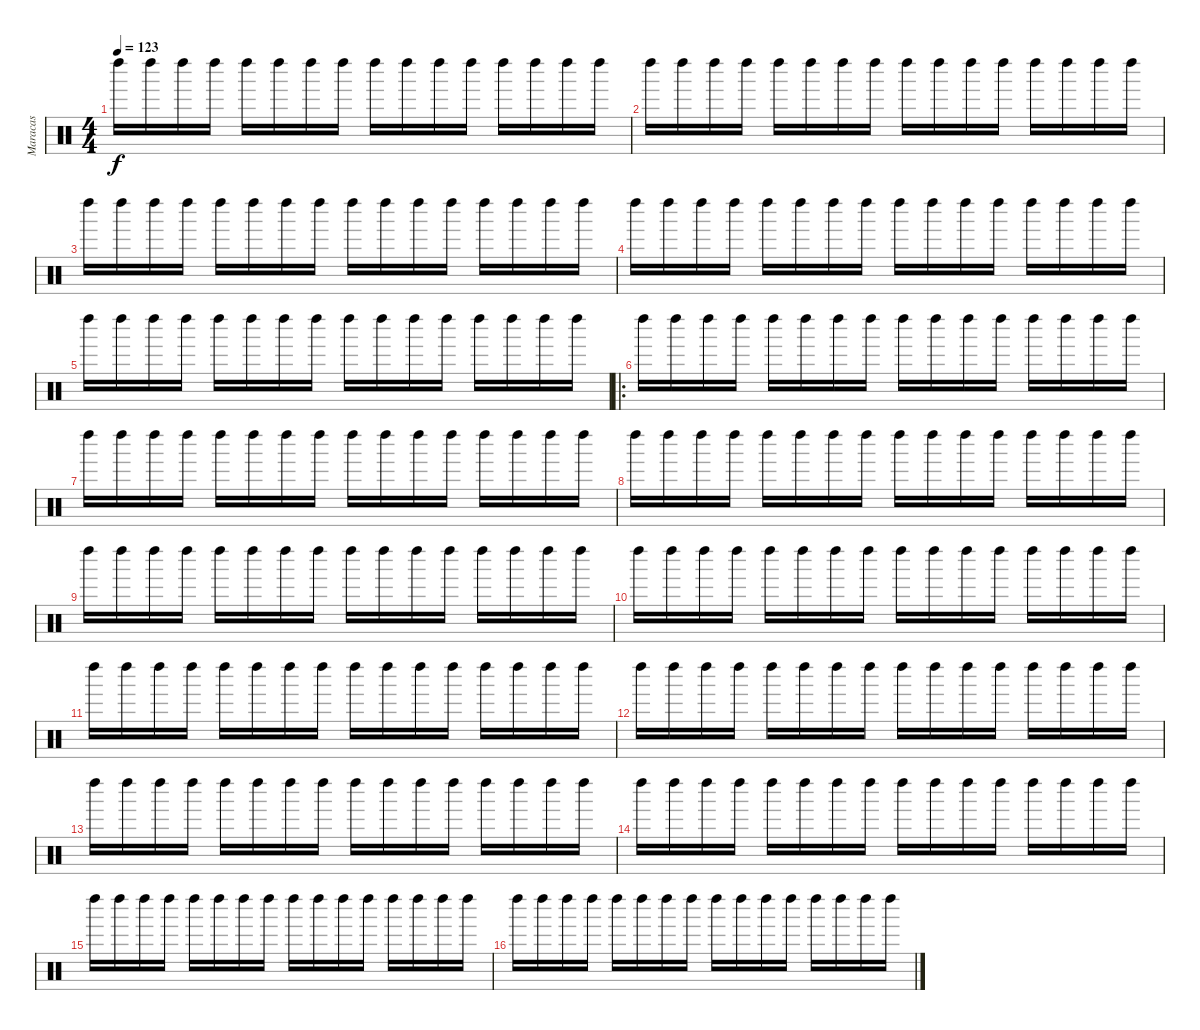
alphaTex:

\track ("Maracas" "Maracas") {instrument percussion}
\staff {score}
\articulation defaults
\ts (4 4)
\tempo 123
\clef neutral
\ks c "Left Maraca (hit)".16{dy f} "Left Maraca (hit)".16 "Left Maraca (hit)".16 "Left Maraca (hit)".16 "Left Maraca (hit)".16 "Left Maraca (hit)".16 "Left Maraca (hit)".16 "Left Maraca (hit)".16 "Left Maraca (hit)".16 "Left Maraca (hit)".16 "Left Maraca (hit)".16 "Left Maraca (hit)".16 "Left Maraca (hit)".16 "Left Maraca (hit)".16 "Left Maraca (hit)".16 "Left Maraca (hit)".16
|
"Left Maraca (hit)".16 "Left Maraca (hit)".16 "Left Maraca (hit)".16 "Left Maraca (hit)".16 "Left Maraca (hit)".16 "Left Maraca (hit)".16 "Left Maraca (hit)".16 "Left Maraca (hit)".16 "Left Maraca (hit)".16 "Left Maraca (hit)".16 "Left Maraca (hit)".16 "Left Maraca (hit)".16 "Left Maraca (hit)".16 "Left Maraca (hit)".16 "Left Maraca (hit)".16 "Left Maraca (hit)".16 |
"Left Maraca (hit)".16 "Left Maraca (hit)".16 "Left Maraca (hit)".16 "Left Maraca (hit)".16 "Left Maraca (hit)".16 "Left Maraca (hit)".16 "Left Maraca (hit)".16 "Left Maraca (hit)".16 "Left Maraca (hit)".16 "Left Maraca (hit)".16 "Left Maraca (hit)".16 "Left Maraca (hit)".16 "Left Maraca (hit)".16 "Left Maraca (hit)".16 "Left Maraca (hit)".16 "Left Maraca (hit)".16 |
"Left Maraca (hit)".16 "Left Maraca (hit)".16 "Left Maraca (hit)".16 "Left Maraca (hit)".16 "Left Maraca (hit)".16 "Left Maraca (hit)".16 "Left Maraca (hit)".16 "Left Maraca (hit)".16 "Left Maraca (hit)".16 "Left Maraca (hit)".16 "Left Maraca (hit)".16 "Left Maraca (hit)".16 "Left Maraca (hit)".16 "Left Maraca (hit)".16 "Left Maraca (hit)".16 "Left Maraca (hit)".16 |
"Left Maraca (hit)".16 "Left Maraca (hit)".16 "Left Maraca (hit)".16 "Left Maraca (hit)".16 "Left Maraca (hit)".16 "Left Maraca (hit)".16 "Left Maraca (hit)".16 "Left Maraca (hit)".16 "Left Maraca (hit)".16 "Left Maraca (hit)".16 "Left Maraca (hit)".16 "Left Maraca (hit)".16 "Left Maraca (hit)".16 "Left Maraca (hit)".16 "Left Maraca (hit)".16 "Left Maraca (hit)".16 |
\ro "Left Maraca (hit)".16 "Left Maraca (hit)".16 "Left Maraca (hit)".16 "Left Maraca (hit)".16 "Left Maraca (hit)".16 "Left Maraca (hit)".16 "Left Maraca (hit)".16 "Left Maraca (hit)".16 "Left Maraca (hit)".16 "Left Maraca (hit)".16 "Left Maraca (hit)".16 "Left Maraca (hit)".16 "Left Maraca (hit)".16 "Left Maraca (hit)".16 "Left Maraca (hit)".16 "Left Maraca (hit)".16
|
"Left Maraca (hit)".16 "Left Maraca (hit)".16 "Left Maraca (hit)".16 "Left Maraca (hit)".16 "Left Maraca (hit)".16 "Left Maraca (hit)".16 "Left Maraca (hit)".16 "Left Maraca (hit)".16 "Left Maraca (hit)".16 "Left Maraca (hit)".16 "Left Maraca (hit)".16 "Left Maraca (hit)".16 "Left Maraca (hit)".16 "Left Maraca (hit)".16 "Left Maraca (hit)".16 "Left Maraca (hit)".16 |
"Left Maraca (hit)".16 "Left Maraca (hit)".16 "Left Maraca (hit)".16 "Left Maraca (hit)".16 "Left Maraca (hit)".16 "Left Maraca (hit)".16 "Left Maraca (hit)".16 "Left Maraca (hit)".16 "Left Maraca (hit)".16 "Left Maraca (hit)".16 "Left Maraca (hit)".16 "Left Maraca (hit)".16 "Left Maraca (hit)".16 "Left Maraca (hit)".16 "Left Maraca (hit)".16 "Left Maraca (hit)".16 |
"Left Maraca (hit)".16 "Left Maraca (hit)".16 "Left Maraca (hit)".16 "Left Maraca (hit)".16 "Left Maraca (hit)".16 "Left Maraca (hit)".16 "Left Maraca (hit)".16 "Left Maraca (hit)".16 "Left Maraca (hit)".16 "Left Maraca (hit)".16 "Left Maraca (hit)".16 "Left Maraca (hit)".16 "Left Maraca (hit)".16 "Left Maraca (hit)".16 "Left Maraca (hit)".16 "Left Maraca (hit)".16 |
"Left Maraca (hit)".16 "Left Maraca (hit)".16 "Left Maraca (hit)".16 "Left Maraca (hit)".16 "Left Maraca (hit)".16 "Left Maraca (hit)".16 "Left Maraca (hit)".16 "Left Maraca (hit)".16 "Left Maraca (hit)".16 "Left Maraca (hit)".16 "Left Maraca (hit)".16 "Left Maraca (hit)".16 "Left Maraca (hit)".16 "Left Maraca (hit)".16 "Left Maraca (hit)".16 "Left Maraca (hit)".16 |
"Left Maraca (hit)".16 "Left Maraca (hit)".16 "Left Maraca (hit)".16 "Left Maraca (hit)".16 "Left Maraca (hit)".16 "Left Maraca (hit)".16 "Left Maraca (hit)".16 "Left Maraca (hit)".16 "Left Maraca (hit)".16 "Left Maraca (hit)".16 "Left Maraca (hit)".16 "Left Maraca (hit)".16 "Left Maraca (hit)".16 "Left Maraca (hit)".16 "Left Maraca (hit)".16 "Left Maraca (hit)".16 |
"Left Maraca (hit)".16 "Left Maraca (hit)".16 "Left Maraca (hit)".16 "Left Maraca (hit)".16 "Left Maraca (hit)".16 "Left Maraca (hit)".16 "Left Maraca (hit)".16 "Left Maraca (hit)".16 "Left Maraca (hit)".16 "Left Maraca (hit)".16 "Left Maraca (hit)".16 "Left Maraca (hit)".16 "Left Maraca (hit)".16 "Left Maraca (hit)".16 "Left Maraca (hit)".16 "Left Maraca (hit)".16 |
"Left Maraca (hit)".16 "Left Maraca (hit)".16 "Left Maraca (hit)".16 "Left Maraca (hit)".16 "Left Maraca (hit)".16 "Left Maraca (hit)".16 "Left Maraca (hit)".16 "Left Maraca (hit)".16 "Left Maraca (hit)".16 "Left Maraca (hit)".16 "Left Maraca (hit)".16 "Left Maraca (hit)".16 "Left Maraca (hit)".16 "Left Maraca (hit)".16 "Left Maraca (hit)".16 "Left Maraca (hit)".16 |
"Left Maraca (hit)".16 "Left Maraca (hit)".16 "Left Maraca (hit)".16 "Left Maraca (hit)".16 "Left Maraca (hit)".16 "Left Maraca (hit)".16 "Left Maraca (hit)".16 "Left Maraca (hit)".16 "Left Maraca (hit)".16 "Left Maraca (hit)".16 "Left Maraca (hit)".16 "Left Maraca (hit)".16 "Left Maraca (hit)".16 "Left Maraca (hit)".16 "Left Maraca (hit)".16 "Left Maraca (hit)".16 |
"Left Maraca (hit)".16 "Left Maraca (hit)".16 "Left Maraca (hit)".16 "Left Maraca (hit)".16 "Left Maraca (hit)".16 "Left Maraca (hit)".16 "Left Maraca (hit)".16 "Left Maraca (hit)".16 "Left Maraca (hit)".16 "Left Maraca (hit)".16 "Left Maraca (hit)".16 "Left Maraca (hit)".16 "Left Maraca (hit)".16 "Left Maraca (hit)".16 "Left Maraca (hit)".16 "Left Maraca (hit)".16 |
"Left Maraca (hit)".16 "Left Maraca (hit)".16 "Left Maraca (hit)".16 "Left Maraca (hit)".16 "Left Maraca (hit)".16 "Left Maraca (hit)".16 "Left Maraca (hit)".16 "Left Maraca (hit)".16 "Left Maraca (hit)".16 "Left Maraca (hit)".16 "Left Maraca (hit)".16 "Left Maraca (hit)".16 "Left Maraca (hit)".16 "Left Maraca (hit)".16 "Left Maraca (hit)".16 "Left Maraca (hit)".16
